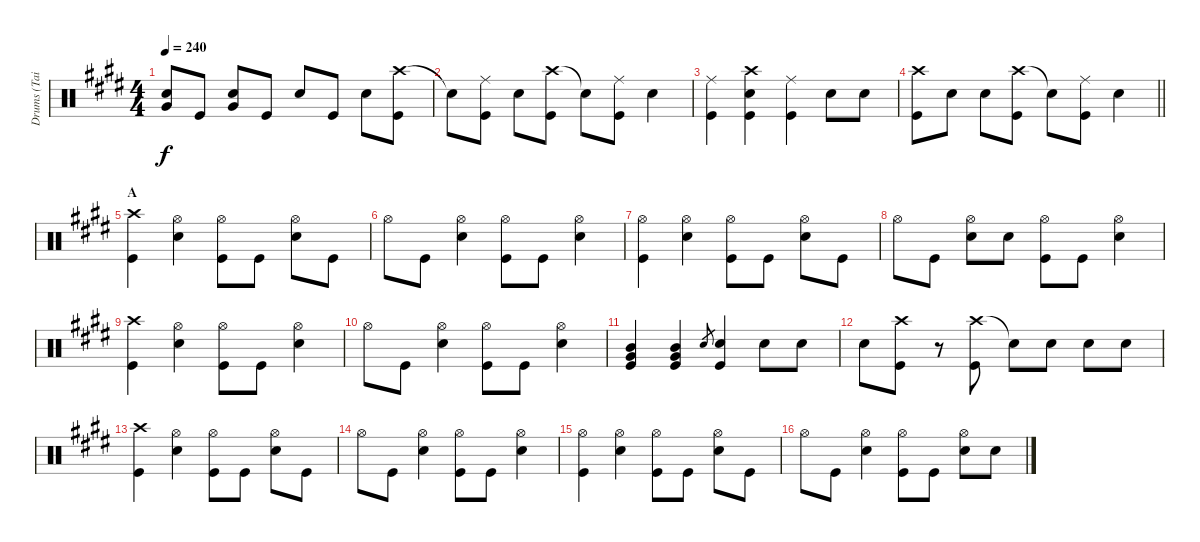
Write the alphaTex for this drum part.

\track ("Drums (Tainaka Ritsu)" "Drums (Tai") {instrument percussion}
\staff {score}
\articulation defaults
\ts (4 4)
\tempo 240
\clef neutral
\ks e
("Snare (hit) 2" "Very Low Tom (hit)").8{dy f} "Kick (hit)".8 ("Snare (hit) 2" "Very Low Tom (hit)").8 "Kick (hit)".8 "Snare (hit) 2".8 "Kick (hit)".8 "Snare (hit) 2".8 ("Crash high (hit)" "Kick (hit)").8 |
"Snare (hit)"{t}.8 ("Ride (middle)" "Kick (hit)").8 "Snare (hit) 2".8 ("Crash high (hit)" "Kick (hit)").8 "Snare (hit)"{t}.8 ("Ride (middle)" "Kick (hit)").8 "Snare (hit) 2".4 |
("Ride (middle)" "Kick (hit)").4 ("Crash high (hit)" "Snare (hit) 2" "Kick (hit)").4 ("Ride (middle)" "Kick (hit)").4 "Snare (hit) 2".8 "Snare (hit) 2".8 |
\barLineRight lightlight
("Crash high (hit)" "Kick (hit)").8 "Snare (hit) 2".8 "Snare (hit) 2".8 ("Crash high (hit)" "Kick (hit)").8 "Snare (hit)"{t}.8 ("Ride (middle)" "Kick (hit)").8 "Snare (hit) 2".4 |
\section ("" "A")
("Crash high (hit)" "Kick (hit)").4 ("Hi-Hat (open)" "Snare (hit) 2").4 ("Hi-Hat (open)" "Kick (hit)").8 "Kick (hit)".8 ("Hi-Hat (open)" "Snare (hit) 2").8 "Kick (hit)".8 |
"Hi-Hat (open)".8 "Kick (hit)".8 ("Hi-Hat (open)" "Snare (hit) 2").4 ("Hi-Hat (open)" "Kick (hit)").8 "Kick (hit)".8 ("Hi-Hat (open)" "Snare (hit) 2").4 |
("Hi-Hat (open)" "Kick (hit)").4 ("Hi-Hat (open)" "Snare (hit) 2").4 ("Hi-Hat (open)" "Kick (hit)").8 "Kick (hit)".8 ("Hi-Hat (open)" "Snare (hit) 2").8 "Kick (hit)".8 |
"Hi-Hat (open)".8 "Kick (hit)".8 ("Hi-Hat (open)" "Snare (hit) 2").8 "Snare (hit) 2".8 ("Hi-Hat (open)" "Kick (hit)").8 "Kick (hit)".8 ("Hi-Hat (open)" "Snare (hit) 2").4 |
("Crash high (hit)" "Kick (hit)").4 ("Hi-Hat (open)" "Snare (hit) 2").4 ("Hi-Hat (open)" "Kick (hit)").8 "Kick (hit)".8 ("Hi-Hat (open)" "Snare (hit) 2").4 |
"Hi-Hat (open)".8 "Kick (hit)".8 ("Hi-Hat (open)" "Snare (hit) 2").4 ("Hi-Hat (open)" "Kick (hit)").8 "Kick (hit)".8 ("Hi-Hat (open)" "Snare (hit) 2").4 |
("Mid Tom (hit)" "Very Low Tom (hit)" "Kick (hit)").4 ("Mid Tom (hit)" "Very Low Tom (hit)" "Kick (hit)").4 "Snare (hit) 2".8{gr} ("Snare (hit) 2" "Kick (hit)").4 "Snare (hit) 2".8 "Snare (hit) 2".8 |
"Snare (hit) 2".8 ("Crash high (hit)" "Kick (hit)").8 r.8 ("Crash high (hit)" "Kick (hit)").8 "Snare (hit)"{t}.8 "Snare (hit) 2".8 "Snare (hit) 2".8 "Snare (hit) 2".8 |
("Crash high (hit)" "Kick (hit)").4 ("Hi-Hat (open)" "Snare (hit) 2").4 ("Hi-Hat (open)" "Kick (hit)").8 "Kick (hit)".8 ("Hi-Hat (open)" "Snare (hit) 2").8 "Kick (hit)".8 |
"Hi-Hat (open)".8 "Kick (hit)".8 ("Hi-Hat (open)" "Snare (hit) 2").4 ("Hi-Hat (open)" "Kick (hit)").8 "Kick (hit)".8 ("Hi-Hat (open)" "Snare (hit) 2").4 |
("Hi-Hat (open)" "Kick (hit)").4 ("Hi-Hat (open)" "Snare (hit) 2").4 ("Hi-Hat (open)" "Kick (hit)").8 "Kick (hit)".8 ("Hi-Hat (open)" "Snare (hit) 2").8 "Kick (hit)".8 |
"Hi-Hat (open)".8 "Kick (hit)".8 ("Hi-Hat (open)" "Snare (hit) 2").4 ("Hi-Hat (open)" "Kick (hit)").8 "Kick (hit)".8 ("Hi-Hat (open)" "Snare (hit) 2").8 "Snare (hit) 2".8
